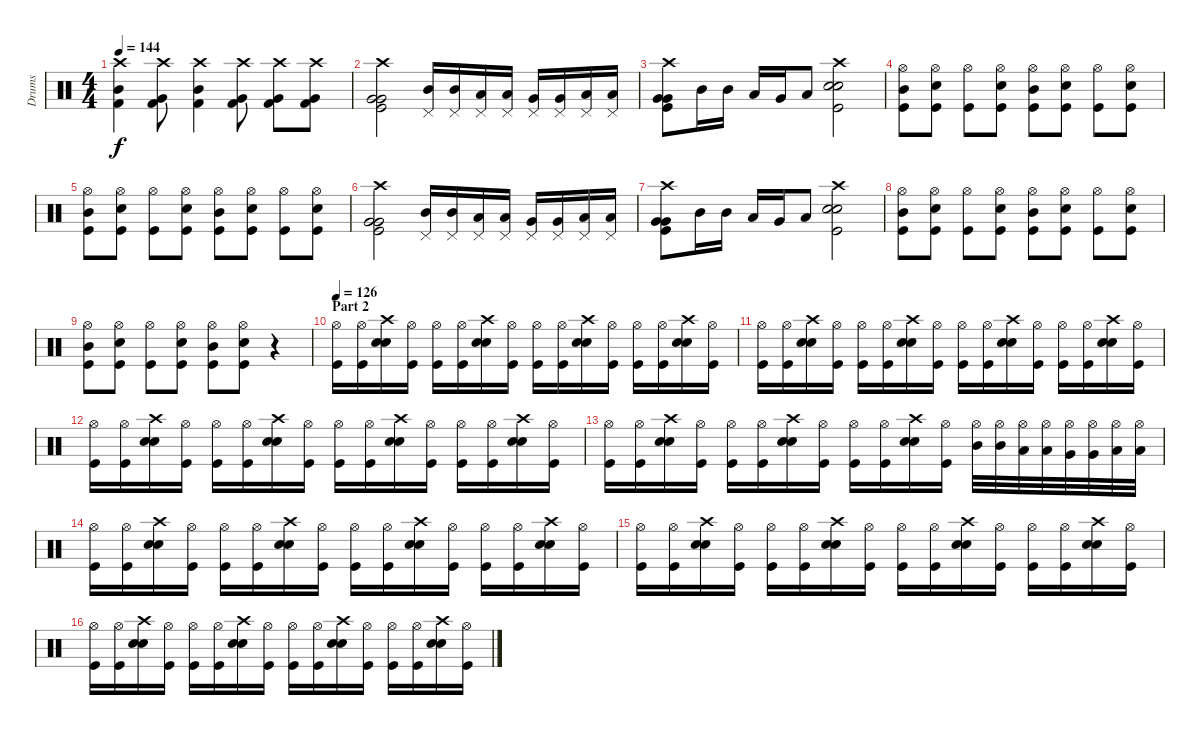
\track ("Drums" "Drums") {instrument percussion}
\staff {score}
\articulation defaults
\ts (4 4)
\tempo 144
\clef neutral
\ks c
("Crash high (hit)" "Kick (hit) 2" "Mid Tom (hit)").4{dy f} ("Crash high (hit)" "Kick (hit) 2" "Very Low Tom (hit)").8 ("Crash high (hit)" "Kick (hit) 2" "Mid Tom (hit)").4 ("Crash high (hit)" "Kick (hit) 2" "Very Low Tom (hit)").8 ("Crash high (hit)" "Kick (hit) 2" "Very Low Tom (hit)").8 ("Crash high (hit)" "Kick (hit) 2" "Very Low Tom (hit)").8 |
("Crash high (hit)" "Very Low Tom (hit)" "Very Low Tom (hit)" "Kick (hit)").2 ("Mid Tom (hit)" "Pedal Hi-Hat (hit)").16 ("Mid Tom (hit)" "Pedal Hi-Hat (hit)").16 ("Low Tom (hit)" "Pedal Hi-Hat (hit)").16 ("Low Tom (hit)" "Pedal Hi-Hat (hit)").16 ("Very Low Tom (hit)" "Pedal Hi-Hat (hit)").16 ("Very Low Tom (hit)" "Pedal Hi-Hat (hit)").16 ("Low Floor Tom (hit)" "Pedal Hi-Hat (hit)").16 ("Low Floor Tom (hit)" "Pedal Hi-Hat (hit)").16 |
("Crash high (hit)" "Very Low Tom (hit)" "Very Low Tom (hit)" "Kick (hit)").8 "Mid Tom (hit)".16 "Mid Tom (hit)".16 "Low Tom (hit)".16 "Very Low Tom (hit)".16 "Low Floor Tom (hit)".8 ("Snare (hit) 2" "Snare (hit) 2" "Kick (hit)" "Crash high (hit)").2 |
("Hi-Hat (open)" "Kick (hit)" "Mid Tom (hit)").8 ("Hi-Hat (open)" "Kick (hit)" "Snare (hit) 2").8 ("Hi-Hat (open)" "Kick (hit)").8 ("Hi-Hat (open)" "Kick (hit)" "Snare (hit) 2").8 ("Hi-Hat (open)" "Kick (hit)" "Mid Tom (hit)").8 ("Hi-Hat (open)" "Kick (hit)" "Snare (hit) 2").8 ("Hi-Hat (open)" "Kick (hit)").8 ("Hi-Hat (open)" "Kick (hit)" "Snare (hit) 2").8 |
("Hi-Hat (open)" "Kick (hit)" "Mid Tom (hit)").8 ("Hi-Hat (open)" "Kick (hit)" "Snare (hit) 2").8 ("Hi-Hat (open)" "Kick (hit)").8 ("Hi-Hat (open)" "Kick (hit)" "Snare (hit) 2").8 ("Hi-Hat (open)" "Kick (hit)" "Mid Tom (hit)").8 ("Hi-Hat (open)" "Kick (hit)" "Snare (hit) 2").8 ("Hi-Hat (open)" "Kick (hit)").8 ("Hi-Hat (open)" "Kick (hit)" "Snare (hit) 2").8 |
("Crash high (hit)" "Very Low Tom (hit)" "Very Low Tom (hit)" "Kick (hit)").2 ("Mid Tom (hit)" "Pedal Hi-Hat (hit)").16 ("Mid Tom (hit)" "Pedal Hi-Hat (hit)").16 ("Low Tom (hit)" "Pedal Hi-Hat (hit)").16 ("Low Tom (hit)" "Pedal Hi-Hat (hit)").16 ("Very Low Tom (hit)" "Pedal Hi-Hat (hit)").16 ("Very Low Tom (hit)" "Pedal Hi-Hat (hit)").16 ("Low Floor Tom (hit)" "Pedal Hi-Hat (hit)").16 ("Low Floor Tom (hit)" "Pedal Hi-Hat (hit)").16 |
("Crash high (hit)" "Very Low Tom (hit)" "Very Low Tom (hit)" "Kick (hit)").8 "Mid Tom (hit)".16 "Mid Tom (hit)".16 "Low Tom (hit)".16 "Very Low Tom (hit)".16 "Low Floor Tom (hit)".8 ("Snare (hit) 2" "Snare (hit) 2" "Kick (hit)" "Crash high (hit)").2 |
("Hi-Hat (open)" "Kick (hit)" "Mid Tom (hit)").8 ("Hi-Hat (open)" "Kick (hit)" "Snare (hit) 2").8 ("Hi-Hat (open)" "Kick (hit)").8 ("Hi-Hat (open)" "Kick (hit)" "Snare (hit) 2").8 ("Hi-Hat (open)" "Kick (hit)" "Mid Tom (hit)").8 ("Hi-Hat (open)" "Kick (hit)" "Snare (hit) 2").8 ("Hi-Hat (open)" "Kick (hit)").8 ("Hi-Hat (open)" "Kick (hit)" "Snare (hit) 2").8 |
("Hi-Hat (open)" "Kick (hit)" "Mid Tom (hit)").8 ("Hi-Hat (open)" "Kick (hit)" "Snare (hit) 2").8 ("Hi-Hat (open)" "Kick (hit)").8 ("Hi-Hat (open)" "Kick (hit)" "Snare (hit) 2").8 ("Hi-Hat (open)" "Kick (hit)" "Mid Tom (hit)").8 ("Hi-Hat (open)" "Kick (hit)" "Snare (hit) 2").8 r.4 |
\section ("" "Part 2")
\tempo 126
("Hi-Hat (open)" "Kick (hit)").16 ("Hi-Hat (open)" "Kick (hit)").16 ("Crash high (hit)" "Snare (hit) 2" "Snare (hit) 2").16 ("Hi-Hat (open)" "Kick (hit)").16 ("Hi-Hat (open)" "Kick (hit)").16 ("Hi-Hat (open)" "Kick (hit)").16 ("Crash high (hit)" "Snare (hit) 2" "Snare (hit) 2").16 ("Hi-Hat (open)" "Kick (hit)").16 ("Hi-Hat (open)" "Kick (hit)").16 ("Hi-Hat (open)" "Kick (hit)").16 ("Crash high (hit)" "Snare (hit) 2" "Snare (hit) 2").16 ("Hi-Hat (open)" "Kick (hit)").16 ("Hi-Hat (open)" "Kick (hit)").16 ("Hi-Hat (open)" "Kick (hit)").16 ("Crash high (hit)" "Snare (hit) 2" "Snare (hit) 2").16 ("Hi-Hat (open)" "Kick (hit)").16 |
("Hi-Hat (open)" "Kick (hit)").16 ("Hi-Hat (open)" "Kick (hit)").16 ("Crash high (hit)" "Snare (hit) 2" "Snare (hit) 2").16 ("Hi-Hat (open)" "Kick (hit)").16 ("Hi-Hat (open)" "Kick (hit)").16 ("Hi-Hat (open)" "Kick (hit)").16 ("Crash high (hit)" "Snare (hit) 2" "Snare (hit) 2").16 ("Hi-Hat (open)" "Kick (hit)").16 ("Hi-Hat (open)" "Kick (hit)").16 ("Hi-Hat (open)" "Kick (hit)").16 ("Crash high (hit)" "Snare (hit) 2" "Snare (hit) 2").16 ("Hi-Hat (open)" "Kick (hit)").16 ("Hi-Hat (open)" "Kick (hit)").16 ("Hi-Hat (open)" "Kick (hit)").16 ("Crash high (hit)" "Snare (hit) 2" "Snare (hit) 2").16 ("Hi-Hat (open)" "Kick (hit)").16 |
("Hi-Hat (open)" "Kick (hit)").16 ("Hi-Hat (open)" "Kick (hit)").16 ("Crash high (hit)" "Snare (hit) 2" "Snare (hit) 2").16 ("Hi-Hat (open)" "Kick (hit)").16 ("Hi-Hat (open)" "Kick (hit)").16 ("Hi-Hat (open)" "Kick (hit)").16 ("Crash high (hit)" "Snare (hit) 2" "Snare (hit) 2").16 ("Hi-Hat (open)" "Kick (hit)").16 ("Hi-Hat (open)" "Kick (hit)").16 ("Hi-Hat (open)" "Kick (hit)").16 ("Crash high (hit)" "Snare (hit) 2" "Snare (hit) 2").16 ("Hi-Hat (open)" "Kick (hit)").16 ("Hi-Hat (open)" "Kick (hit)").16 ("Hi-Hat (open)" "Kick (hit)").16 ("Crash high (hit)" "Snare (hit) 2" "Snare (hit) 2").16 ("Hi-Hat (open)" "Kick (hit)").16 |
("Hi-Hat (open)" "Kick (hit)").16 ("Hi-Hat (open)" "Kick (hit)").16 ("Crash high (hit)" "Snare (hit) 2" "Snare (hit) 2").16 ("Hi-Hat (open)" "Kick (hit)").16 ("Hi-Hat (open)" "Kick (hit)").16 ("Hi-Hat (open)" "Kick (hit)").16 ("Crash high (hit)" "Snare (hit) 2" "Snare (hit) 2").16 ("Hi-Hat (open)" "Kick (hit)").16 ("Hi-Hat (open)" "Kick (hit)").16 ("Hi-Hat (open)" "Kick (hit)").16 ("Crash high (hit)" "Snare (hit) 2" "Snare (hit) 2").16 ("Hi-Hat (open)" "Kick (hit)").16 ("Mid Tom (hit)" "Hi-Hat (open)").32 ("Mid Tom (hit)" "Hi-Hat (open)").32 ("Low Tom (hit)" "Hi-Hat (open)").32 ("Low Tom (hit)" "Hi-Hat (open)").32 ("Very Low Tom (hit)" "Hi-Hat (open)").32 ("Very Low Tom (hit)" "Hi-Hat (open)").32 ("Low Floor Tom (hit)" "Hi-Hat (open)").32 ("Low Floor Tom (hit)" "Hi-Hat (open)").32 |
("Hi-Hat (open)" "Kick (hit)").16 ("Hi-Hat (open)" "Kick (hit)").16 ("Crash high (hit)" "Snare (hit) 2" "Snare (hit) 2").16 ("Hi-Hat (open)" "Kick (hit)").16 ("Hi-Hat (open)" "Kick (hit)").16 ("Hi-Hat (open)" "Kick (hit)").16 ("Crash high (hit)" "Snare (hit) 2" "Snare (hit) 2").16 ("Hi-Hat (open)" "Kick (hit)").16 ("Hi-Hat (open)" "Kick (hit)").16 ("Hi-Hat (open)" "Kick (hit)").16 ("Crash high (hit)" "Snare (hit) 2" "Snare (hit) 2").16 ("Hi-Hat (open)" "Kick (hit)").16 ("Hi-Hat (open)" "Kick (hit)").16 ("Hi-Hat (open)" "Kick (hit)").16 ("Crash high (hit)" "Snare (hit) 2" "Snare (hit) 2").16 ("Hi-Hat (open)" "Kick (hit)").16 |
("Hi-Hat (open)" "Kick (hit)").16 ("Hi-Hat (open)" "Kick (hit)").16 ("Crash high (hit)" "Snare (hit) 2" "Snare (hit) 2").16 ("Hi-Hat (open)" "Kick (hit)").16 ("Hi-Hat (open)" "Kick (hit)").16 ("Hi-Hat (open)" "Kick (hit)").16 ("Crash high (hit)" "Snare (hit) 2" "Snare (hit) 2").16 ("Hi-Hat (open)" "Kick (hit)").16 ("Hi-Hat (open)" "Kick (hit)").16 ("Hi-Hat (open)" "Kick (hit)").16 ("Crash high (hit)" "Snare (hit) 2" "Snare (hit) 2").16 ("Hi-Hat (open)" "Kick (hit)").16 ("Hi-Hat (open)" "Kick (hit)").16 ("Hi-Hat (open)" "Kick (hit)").16 ("Crash high (hit)" "Snare (hit) 2" "Snare (hit) 2").16 ("Hi-Hat (open)" "Kick (hit)").16 |
("Hi-Hat (open)" "Kick (hit)").16 ("Hi-Hat (open)" "Kick (hit)").16 ("Crash high (hit)" "Snare (hit) 2" "Snare (hit) 2").16 ("Hi-Hat (open)" "Kick (hit)").16 ("Hi-Hat (open)" "Kick (hit)").16 ("Hi-Hat (open)" "Kick (hit)").16 ("Crash high (hit)" "Snare (hit) 2" "Snare (hit) 2").16 ("Hi-Hat (open)" "Kick (hit)").16 ("Hi-Hat (open)" "Kick (hit)").16 ("Hi-Hat (open)" "Kick (hit)").16 ("Crash high (hit)" "Snare (hit) 2" "Snare (hit) 2").16 ("Hi-Hat (open)" "Kick (hit)").16 ("Hi-Hat (open)" "Kick (hit)").16 ("Hi-Hat (open)" "Kick (hit)").16 ("Crash high (hit)" "Snare (hit) 2" "Snare (hit) 2").16 ("Hi-Hat (open)" "Kick (hit)").16
